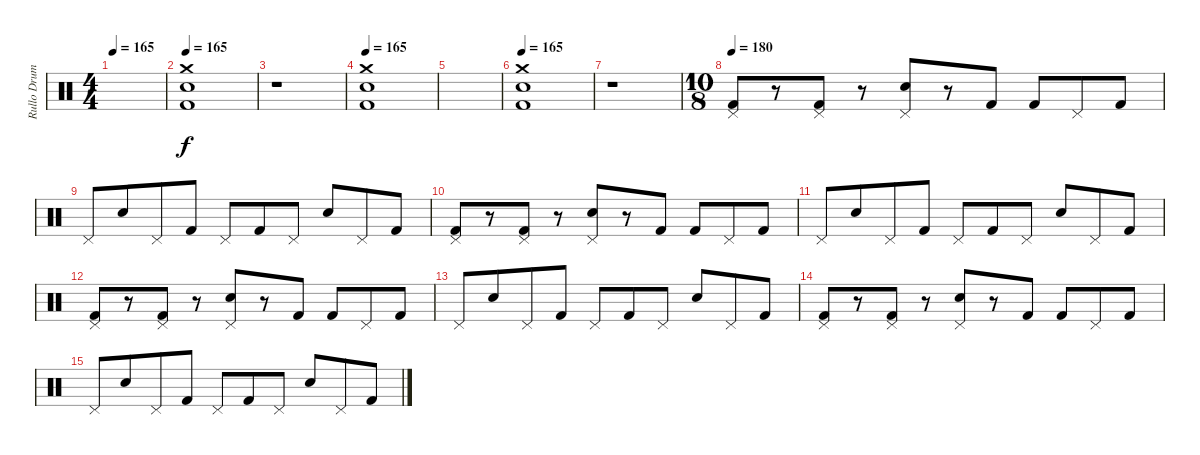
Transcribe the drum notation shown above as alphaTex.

\track ("Rullo Drums" "Rullo Drum") {instrument percussion}
\staff {score}
\articulation defaults
\ts (4 4)
\tempo 165
\clef neutral
\ks c
|
\tempo 165
("Kick (hit) 2" "Snare (hit) 2" "Crash medium (hit)").1 |
r.1 |
\tempo 165
("Kick (hit) 2" "Snare (hit) 2" "Crash medium (hit)").1 |
|
\tempo 165
("Kick (hit) 2" "Snare (hit) 2" "Crash medium (hit)").1 |
r.1 |
\ts (10 8)
\tempo 180
("Kick (hit) 2" "Pedal Hi-Hat (hit)").8 r.8 ("Kick (hit) 2" "Pedal Hi-Hat (hit)").8 r.8 ("Snare (hit) 2" "Pedal Hi-Hat (hit)").8 r.8 "Kick (hit) 2".8 "Kick (hit) 2".8 "Pedal Hi-Hat (hit)".8 "Kick (hit) 2".8 |
"Pedal Hi-Hat (hit)".8 "Snare (hit) 2".8 "Pedal Hi-Hat (hit)".8 "Kick (hit) 2".8 "Pedal Hi-Hat (hit)".8 "Kick (hit) 2".8 "Pedal Hi-Hat (hit)".8 "Snare (hit) 2".8 "Pedal Hi-Hat (hit)".8 "Kick (hit) 2".8 |
("Kick (hit) 2" "Pedal Hi-Hat (hit)").8 r.8 ("Kick (hit) 2" "Pedal Hi-Hat (hit)").8 r.8 ("Snare (hit) 2" "Pedal Hi-Hat (hit)").8 r.8 "Kick (hit) 2".8 "Kick (hit) 2".8 "Pedal Hi-Hat (hit)".8 "Kick (hit) 2".8 |
"Pedal Hi-Hat (hit)".8 "Snare (hit) 2".8 "Pedal Hi-Hat (hit)".8 "Kick (hit) 2".8 "Pedal Hi-Hat (hit)".8 "Kick (hit) 2".8 "Pedal Hi-Hat (hit)".8 "Snare (hit) 2".8 "Pedal Hi-Hat (hit)".8 "Kick (hit) 2".8 |
("Kick (hit) 2" "Pedal Hi-Hat (hit)").8 r.8 ("Kick (hit) 2" "Pedal Hi-Hat (hit)").8 r.8 ("Snare (hit) 2" "Pedal Hi-Hat (hit)").8 r.8 "Kick (hit) 2".8 "Kick (hit) 2".8 "Pedal Hi-Hat (hit)".8 "Kick (hit) 2".8 |
"Pedal Hi-Hat (hit)".8 "Snare (hit) 2".8 "Pedal Hi-Hat (hit)".8 "Kick (hit) 2".8 "Pedal Hi-Hat (hit)".8 "Kick (hit) 2".8 "Pedal Hi-Hat (hit)".8 "Snare (hit) 2".8 "Pedal Hi-Hat (hit)".8 "Kick (hit) 2".8 |
("Kick (hit) 2" "Pedal Hi-Hat (hit)").8 r.8 ("Kick (hit) 2" "Pedal Hi-Hat (hit)").8 r.8 ("Snare (hit) 2" "Pedal Hi-Hat (hit)").8 r.8 "Kick (hit) 2".8 "Kick (hit) 2".8 "Pedal Hi-Hat (hit)".8 "Kick (hit) 2".8 |
"Pedal Hi-Hat (hit)".8 "Snare (hit) 2".8 "Pedal Hi-Hat (hit)".8 "Kick (hit) 2".8 "Pedal Hi-Hat (hit)".8 "Kick (hit) 2".8 "Pedal Hi-Hat (hit)".8 "Snare (hit) 2".8 "Pedal Hi-Hat (hit)".8 "Kick (hit) 2".8
